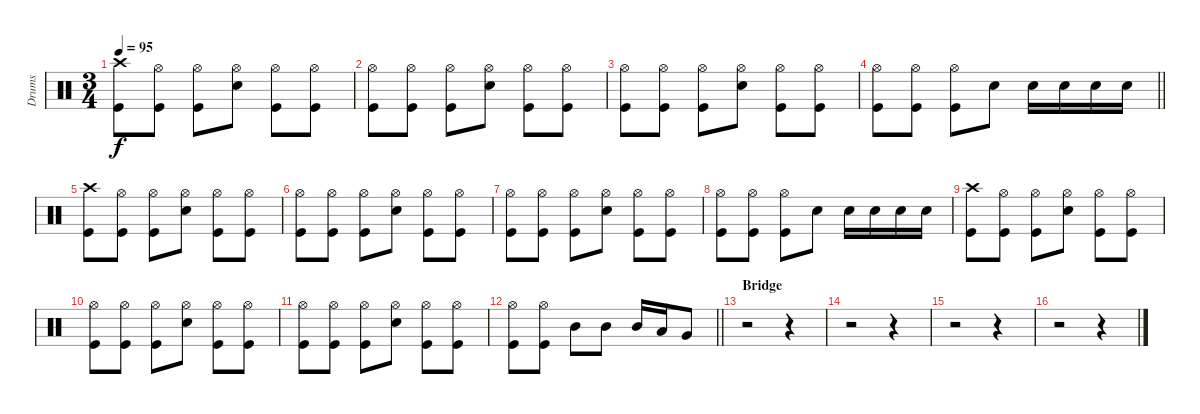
\track ("Drums" "Drums") {instrument percussion}
\staff {score}
\articulation defaults
\ts (3 4)
\tempo 95
\clef neutral
\ks c
("Crash high (hit)" "Kick (hit)").8{dy f} ("Hi-Hat (open)" "Kick (hit)").8 ("Hi-Hat (open)" "Kick (hit)").8 ("Hi-Hat (open)" "Electric Snare (hit)").8 ("Hi-Hat (open)" "Kick (hit)").8 ("Hi-Hat (open)" "Kick (hit)").8 |
("Hi-Hat (open)" "Kick (hit)").8 ("Hi-Hat (open)" "Kick (hit)").8 ("Hi-Hat (open)" "Kick (hit)").8 ("Hi-Hat (open)" "Electric Snare (hit)").8 ("Hi-Hat (open)" "Kick (hit)").8 ("Hi-Hat (open)" "Kick (hit)").8 |
("Hi-Hat (open)" "Kick (hit)").8 ("Hi-Hat (open)" "Kick (hit)").8 ("Hi-Hat (open)" "Kick (hit)").8 ("Hi-Hat (open)" "Electric Snare (hit)").8 ("Hi-Hat (open)" "Kick (hit)").8 ("Hi-Hat (open)" "Kick (hit)").8 |
\barLineRight lightlight
("Hi-Hat (open)" "Kick (hit)").8 ("Hi-Hat (open)" "Kick (hit)").8 ("Hi-Hat (open)" "Kick (hit)").8 "Electric Snare (hit)".8 "Electric Snare (hit)".16 "Electric Snare (hit)".16 "Electric Snare (hit)".16 "Electric Snare (hit)".16 |
\section ("" "")
("Crash high (hit)" "Kick (hit)").8 ("Hi-Hat (open)" "Kick (hit)").8 ("Hi-Hat (open)" "Kick (hit)").8 ("Hi-Hat (open)" "Electric Snare (hit)").8 ("Hi-Hat (open)" "Kick (hit)").8 ("Hi-Hat (open)" "Kick (hit)").8 |
("Hi-Hat (open)" "Kick (hit)").8 ("Hi-Hat (open)" "Kick (hit)").8 ("Hi-Hat (open)" "Kick (hit)").8 ("Hi-Hat (open)" "Electric Snare (hit)").8 ("Hi-Hat (open)" "Kick (hit)").8 ("Hi-Hat (open)" "Kick (hit)").8 |
("Hi-Hat (open)" "Kick (hit)").8 ("Hi-Hat (open)" "Kick (hit)").8 ("Hi-Hat (open)" "Kick (hit)").8 ("Hi-Hat (open)" "Electric Snare (hit)").8 ("Hi-Hat (open)" "Kick (hit)").8 ("Hi-Hat (open)" "Kick (hit)").8 |
("Hi-Hat (open)" "Kick (hit)").8 ("Hi-Hat (open)" "Kick (hit)").8 ("Hi-Hat (open)" "Kick (hit)").8 "Electric Snare (hit)".8 "Electric Snare (hit)".16 "Electric Snare (hit)".16 "Electric Snare (hit)".16 "Electric Snare (hit)".16 |
("Crash high (hit)" "Kick (hit)").8 ("Hi-Hat (open)" "Kick (hit)").8 ("Hi-Hat (open)" "Kick (hit)").8 ("Hi-Hat (open)" "Electric Snare (hit)").8 ("Hi-Hat (open)" "Kick (hit)").8 ("Hi-Hat (open)" "Kick (hit)").8 |
("Hi-Hat (open)" "Kick (hit)").8 ("Hi-Hat (open)" "Kick (hit)").8 ("Hi-Hat (open)" "Kick (hit)").8 ("Hi-Hat (open)" "Electric Snare (hit)").8 ("Hi-Hat (open)" "Kick (hit)").8 ("Hi-Hat (open)" "Kick (hit)").8 |
("Hi-Hat (open)" "Kick (hit)").8 ("Hi-Hat (open)" "Kick (hit)").8 ("Hi-Hat (open)" "Kick (hit)").8 ("Hi-Hat (open)" "Electric Snare (hit)").8 ("Hi-Hat (open)" "Kick (hit)").8 ("Hi-Hat (open)" "Kick (hit)").8 |
\barLineRight lightlight
("Hi-Hat (open)" "Kick (hit)").8 ("Hi-Hat (open)" "Kick (hit)").8 "Mid Tom (hit)".8 "Mid Tom (hit)".8 "Mid Tom (hit)".16 "Low Tom (hit)".16 "Very Low Tom (hit)".8 |
\section ("" "Bridge")
r.2 r.4 |
r.2 r.4 |
r.2 r.4 |
r.2 r.4
